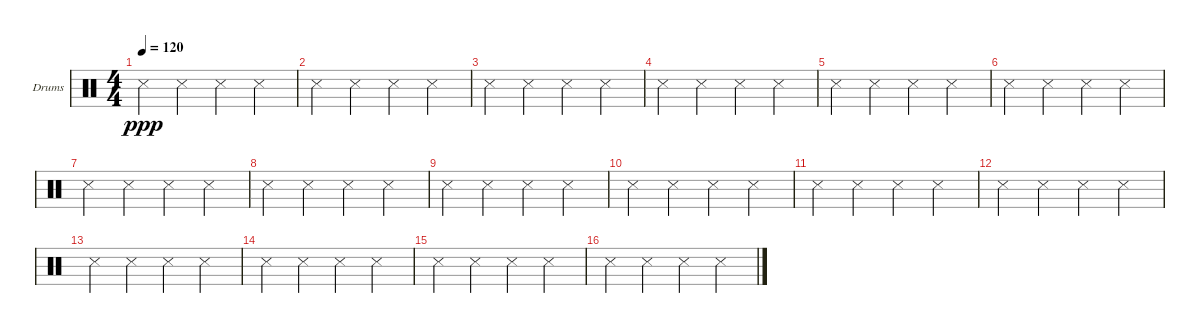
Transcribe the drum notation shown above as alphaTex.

\bracketExtendMode groupsimilarinstruments
\firstSystemTrackNameOrientation horizontal
\otherSystemsTrackNameOrientation horizontal
\track ("Drumkit" "Drums") {instrument percussion}
\staff {score}
\articulation defaults
\ts (4 4)
\tempo 120
\clef neutral
\ks aminor "Snare (side stick) 3".4{dy ppp} "Snare (side stick) 3".4 "Snare (side stick) 3".4 "Snare (side stick) 3".4
|
\ks c "Snare (side stick) 3".4 "Snare (side stick) 3".4 "Snare (side stick) 3".4 "Snare (side stick) 3".4
|
"Snare (side stick) 3".4 "Snare (side stick) 3".4 "Snare (side stick) 3".4 "Snare (side stick) 3".4 |
"Snare (side stick) 3".4 "Snare (side stick) 3".4 "Snare (side stick) 3".4 "Snare (side stick) 3".4 |
"Snare (side stick) 3".4 "Snare (side stick) 3".4 "Snare (side stick) 3".4 "Snare (side stick) 3".4 |
"Snare (side stick) 3".4 "Snare (side stick) 3".4 "Snare (side stick) 3".4 "Snare (side stick) 3".4 |
"Snare (side stick) 3".4 "Snare (side stick) 3".4 "Snare (side stick) 3".4 "Snare (side stick) 3".4 |
"Snare (side stick) 3".4 "Snare (side stick) 3".4 "Snare (side stick) 3".4 "Snare (side stick) 3".4 |
"Snare (side stick) 3".4 "Snare (side stick) 3".4 "Snare (side stick) 3".4 "Snare (side stick) 3".4 |
"Snare (side stick) 3".4 "Snare (side stick) 3".4 "Snare (side stick) 3".4 "Snare (side stick) 3".4 |
"Snare (side stick) 3".4 "Snare (side stick) 3".4 "Snare (side stick) 3".4 "Snare (side stick) 3".4 |
"Snare (side stick) 3".4 "Snare (side stick) 3".4 "Snare (side stick) 3".4 "Snare (side stick) 3".4 |
"Snare (side stick) 3".4 "Snare (side stick) 3".4 "Snare (side stick) 3".4 "Snare (side stick) 3".4 |
"Snare (side stick) 3".4 "Snare (side stick) 3".4 "Snare (side stick) 3".4 "Snare (side stick) 3".4 |
"Snare (side stick) 3".4 "Snare (side stick) 3".4 "Snare (side stick) 3".4 "Snare (side stick) 3".4 |
"Snare (side stick) 3".4 "Snare (side stick) 3".4 "Snare (side stick) 3".4 "Snare (side stick) 3".4
